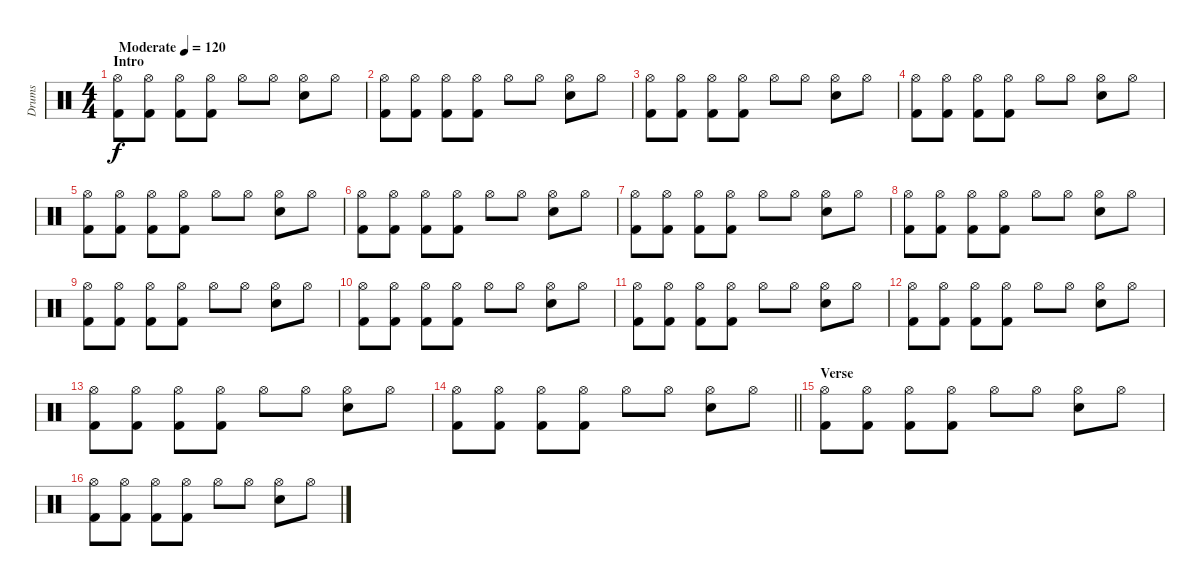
\track ("Drums" "Drums") {instrument percussion}
\staff {score}
\articulation defaults
\ts (4 4)
\section ("" "Intro")
\tempo (120 "Moderate")
\clef neutral
\ks c
("Hi-Hat (open)" "Kick (hit) 2").8{dy f} ("Hi-Hat (open)" "Kick (hit) 2").8 ("Hi-Hat (open)" "Kick (hit) 2").8 ("Hi-Hat (open)" "Kick (hit) 2").8 "Hi-Hat (open)".8 "Hi-Hat (open)".8 ("Hi-Hat (open)" "Snare (hit) 2").8 "Hi-Hat (open)".8 |
("Hi-Hat (open)" "Kick (hit) 2").8 ("Hi-Hat (open)" "Kick (hit) 2").8 ("Hi-Hat (open)" "Kick (hit) 2").8 ("Hi-Hat (open)" "Kick (hit) 2").8 "Hi-Hat (open)".8 "Hi-Hat (open)".8 ("Hi-Hat (open)" "Snare (hit) 2").8 "Hi-Hat (open)".8 |
("Hi-Hat (open)" "Kick (hit) 2").8 ("Hi-Hat (open)" "Kick (hit) 2").8 ("Hi-Hat (open)" "Kick (hit) 2").8 ("Hi-Hat (open)" "Kick (hit) 2").8 "Hi-Hat (open)".8 "Hi-Hat (open)".8 ("Hi-Hat (open)" "Snare (hit) 2").8 "Hi-Hat (open)".8 |
("Hi-Hat (open)" "Kick (hit) 2").8 ("Hi-Hat (open)" "Kick (hit) 2").8 ("Hi-Hat (open)" "Kick (hit) 2").8 ("Hi-Hat (open)" "Kick (hit) 2").8 "Hi-Hat (open)".8 "Hi-Hat (open)".8 ("Hi-Hat (open)" "Snare (hit) 2").8 "Hi-Hat (open)".8 |
("Hi-Hat (open)" "Kick (hit) 2").8 ("Hi-Hat (open)" "Kick (hit) 2").8 ("Hi-Hat (open)" "Kick (hit) 2").8 ("Hi-Hat (open)" "Kick (hit) 2").8 "Hi-Hat (open)".8 "Hi-Hat (open)".8 ("Hi-Hat (open)" "Snare (hit) 2").8 "Hi-Hat (open)".8 |
("Hi-Hat (open)" "Kick (hit) 2").8 ("Hi-Hat (open)" "Kick (hit) 2").8 ("Hi-Hat (open)" "Kick (hit) 2").8 ("Hi-Hat (open)" "Kick (hit) 2").8 "Hi-Hat (open)".8 "Hi-Hat (open)".8 ("Hi-Hat (open)" "Snare (hit) 2").8 "Hi-Hat (open)".8 |
("Hi-Hat (open)" "Kick (hit) 2").8 ("Hi-Hat (open)" "Kick (hit) 2").8 ("Hi-Hat (open)" "Kick (hit) 2").8 ("Hi-Hat (open)" "Kick (hit) 2").8 "Hi-Hat (open)".8 "Hi-Hat (open)".8 ("Hi-Hat (open)" "Snare (hit) 2").8 "Hi-Hat (open)".8 |
("Hi-Hat (open)" "Kick (hit) 2").8 ("Hi-Hat (open)" "Kick (hit) 2").8 ("Hi-Hat (open)" "Kick (hit) 2").8 ("Hi-Hat (open)" "Kick (hit) 2").8 "Hi-Hat (open)".8 "Hi-Hat (open)".8 ("Hi-Hat (open)" "Snare (hit) 2").8 "Hi-Hat (open)".8 |
("Hi-Hat (open)" "Kick (hit) 2").8 ("Hi-Hat (open)" "Kick (hit) 2").8 ("Hi-Hat (open)" "Kick (hit) 2").8 ("Hi-Hat (open)" "Kick (hit) 2").8 "Hi-Hat (open)".8 "Hi-Hat (open)".8 ("Hi-Hat (open)" "Snare (hit) 2").8 "Hi-Hat (open)".8 |
("Hi-Hat (open)" "Kick (hit) 2").8 ("Hi-Hat (open)" "Kick (hit) 2").8 ("Hi-Hat (open)" "Kick (hit) 2").8 ("Hi-Hat (open)" "Kick (hit) 2").8 "Hi-Hat (open)".8 "Hi-Hat (open)".8 ("Hi-Hat (open)" "Snare (hit) 2").8 "Hi-Hat (open)".8 |
("Hi-Hat (open)" "Kick (hit) 2").8 ("Hi-Hat (open)" "Kick (hit) 2").8 ("Hi-Hat (open)" "Kick (hit) 2").8 ("Hi-Hat (open)" "Kick (hit) 2").8 "Hi-Hat (open)".8 "Hi-Hat (open)".8 ("Hi-Hat (open)" "Snare (hit) 2").8 "Hi-Hat (open)".8 |
("Hi-Hat (open)" "Kick (hit) 2").8 ("Hi-Hat (open)" "Kick (hit) 2").8 ("Hi-Hat (open)" "Kick (hit) 2").8 ("Hi-Hat (open)" "Kick (hit) 2").8 "Hi-Hat (open)".8 "Hi-Hat (open)".8 ("Hi-Hat (open)" "Snare (hit) 2").8 "Hi-Hat (open)".8 |
("Hi-Hat (open)" "Kick (hit) 2").8 ("Hi-Hat (open)" "Kick (hit) 2").8 ("Hi-Hat (open)" "Kick (hit) 2").8 ("Hi-Hat (open)" "Kick (hit) 2").8 "Hi-Hat (open)".8 "Hi-Hat (open)".8 ("Hi-Hat (open)" "Snare (hit) 2").8 "Hi-Hat (open)".8 |
\barLineRight lightlight
("Hi-Hat (open)" "Kick (hit) 2").8 ("Hi-Hat (open)" "Kick (hit) 2").8 ("Hi-Hat (open)" "Kick (hit) 2").8 ("Hi-Hat (open)" "Kick (hit) 2").8 "Hi-Hat (open)".8 "Hi-Hat (open)".8 ("Hi-Hat (open)" "Snare (hit) 2").8 "Hi-Hat (open)".8 |
\section ("" "Verse")
("Hi-Hat (open)" "Kick (hit) 2").8 ("Hi-Hat (open)" "Kick (hit) 2").8 ("Hi-Hat (open)" "Kick (hit) 2").8 ("Hi-Hat (open)" "Kick (hit) 2").8 "Hi-Hat (open)".8 "Hi-Hat (open)".8 ("Hi-Hat (open)" "Snare (hit) 2").8 "Hi-Hat (open)".8 |
("Hi-Hat (open)" "Kick (hit) 2").8 ("Hi-Hat (open)" "Kick (hit) 2").8 ("Hi-Hat (open)" "Kick (hit) 2").8 ("Hi-Hat (open)" "Kick (hit) 2").8 "Hi-Hat (open)".8 "Hi-Hat (open)".8 ("Hi-Hat (open)" "Snare (hit) 2").8 "Hi-Hat (open)".8
